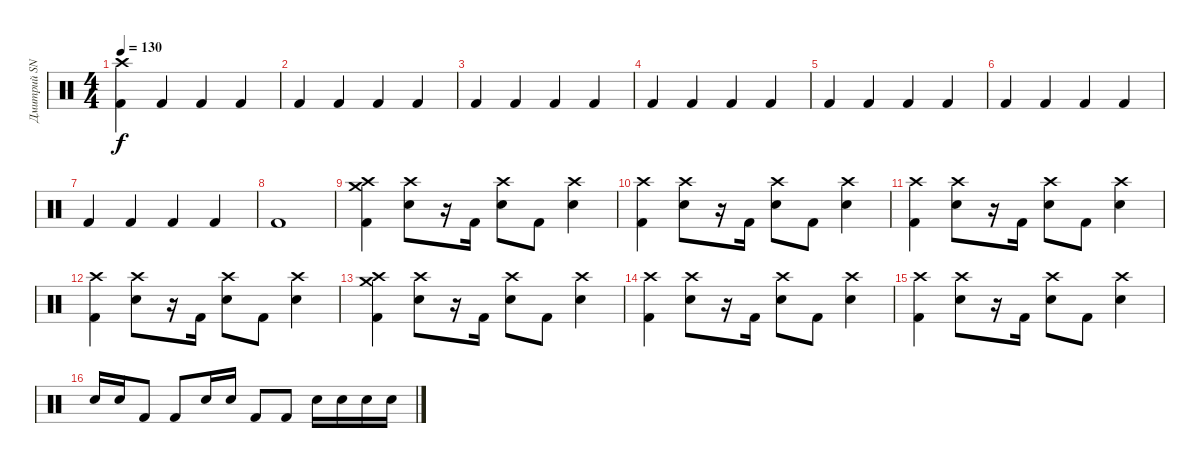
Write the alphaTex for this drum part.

\track ("Дмитрий SNAKE Хакимов" "Дмитрий SN") {instrument percussion}
\staff {score}
\articulation defaults
\ts (4 4)
\tempo 130
\clef neutral
\ks c
("Crash high (hit)" "Kick (hit) 2").4{dy f} "Kick (hit) 2".4 "Kick (hit) 2".4 "Kick (hit) 2".4 |
"Kick (hit) 2".4 "Kick (hit) 2".4 "Kick (hit) 2".4 "Kick (hit) 2".4 |
"Kick (hit) 2".4 "Kick (hit) 2".4 "Kick (hit) 2".4 "Kick (hit) 2".4 |
"Kick (hit) 2".4 "Kick (hit) 2".4 "Kick (hit) 2".4 "Kick (hit) 2".4 |
"Kick (hit) 2".4 "Kick (hit) 2".4 "Kick (hit) 2".4 "Kick (hit) 2".4 |
"Kick (hit) 2".4 "Kick (hit) 2".4 "Kick (hit) 2".4 "Kick (hit) 2".4 |
"Kick (hit) 2".4 "Kick (hit) 2".4 "Kick (hit) 2".4 "Kick (hit) 2".4 |
"Kick (hit) 2".1 |
("Crash high (hit)" "Crash medium (hit)" "Kick (hit) 2").4 ("Crash high (hit)" "Snare (hit) 2").8 r.16 "Kick (hit) 2".16 ("Crash high (hit)" "Snare (hit) 2").8 "Kick (hit) 2".8 ("Crash high (hit)" "Snare (hit) 2").4 |
("Crash high (hit)" "Kick (hit) 2").4 ("Crash high (hit)" "Snare (hit) 2").8 r.16 "Kick (hit) 2".16 ("Crash high (hit)" "Snare (hit) 2").8 "Kick (hit) 2".8 ("Crash high (hit)" "Snare (hit) 2").4 |
("Crash high (hit)" "Kick (hit) 2").4 ("Crash high (hit)" "Snare (hit) 2").8 r.16 "Kick (hit) 2".16 ("Crash high (hit)" "Snare (hit) 2").8 "Kick (hit) 2".8 ("Crash high (hit)" "Snare (hit) 2").4 |
("Crash high (hit)" "Kick (hit) 2").4 ("Crash high (hit)" "Snare (hit) 2").8 r.16 "Kick (hit) 2".16 ("Crash high (hit)" "Snare (hit) 2").8 "Kick (hit) 2".8 ("Crash high (hit)" "Snare (hit) 2").4 |
("Crash high (hit)" "Crash medium (hit)" "Kick (hit) 2").4 ("Crash high (hit)" "Snare (hit) 2").8 r.16 "Kick (hit) 2".16 ("Crash high (hit)" "Snare (hit) 2").8 "Kick (hit) 2".8 ("Crash high (hit)" "Snare (hit) 2").4 |
("Crash high (hit)" "Kick (hit) 2").4 ("Crash high (hit)" "Snare (hit) 2").8 r.16 "Kick (hit) 2".16 ("Crash high (hit)" "Snare (hit) 2").8 "Kick (hit) 2".8 ("Crash high (hit)" "Snare (hit) 2").4 |
("Crash high (hit)" "Kick (hit) 2").4 ("Crash high (hit)" "Snare (hit) 2").8 r.16 "Kick (hit) 2".16 ("Crash high (hit)" "Snare (hit) 2").8 "Kick (hit) 2".8 ("Crash high (hit)" "Snare (hit) 2").4 |
"Snare (hit) 2".16 "Snare (hit) 2".16 "Kick (hit) 2".8 "Kick (hit) 2".8 "Snare (hit) 2".16 "Snare (hit) 2".16 "Kick (hit) 2".8 "Kick (hit) 2".8 "Snare (hit) 2".16 "Snare (hit) 2".16 "Snare (hit) 2".16 "Snare (hit) 2".16
